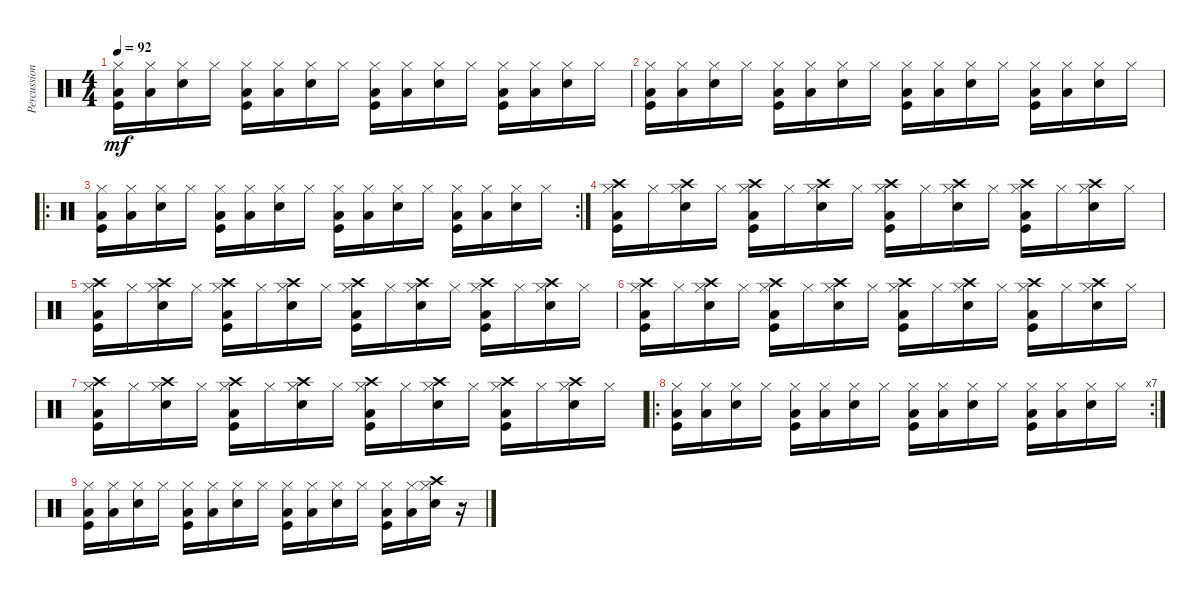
\track ("Percussion" "Percussion") {instrument percussion}
\staff {score}
\articulation defaults
\ts (4 4)
\tempo 92
\clef neutral
\ks c
("Hi-Hat (closed)" "Low Tom (hit)" "Kick (hit)").16{dy mf} ("Hi-Hat (closed)" "Low Tom (hit)").16 ("Hi-Hat (closed)" "Snare (hit) 2").16 "Hi-Hat (closed)".16 ("Hi-Hat (closed)" "Low Tom (hit)" "Kick (hit)").16 ("Hi-Hat (closed)" "Low Tom (hit)").16 ("Hi-Hat (closed)" "Snare (hit) 2").16 "Hi-Hat (closed)".16 ("Hi-Hat (closed)" "Low Tom (hit)" "Kick (hit)").16 ("Hi-Hat (closed)" "Low Tom (hit)").16 ("Hi-Hat (closed)" "Snare (hit) 2").16 "Hi-Hat (closed)".16 ("Hi-Hat (closed)" "Low Tom (hit)" "Kick (hit)").16 ("Hi-Hat (closed)" "Low Tom (hit)").16 ("Hi-Hat (closed)" "Snare (hit) 2").16 "Hi-Hat (closed)".16 |
("Hi-Hat (closed)" "Low Tom (hit)" "Kick (hit)").16 ("Hi-Hat (closed)" "Low Tom (hit)").16 ("Hi-Hat (closed)" "Snare (hit) 2").16 "Hi-Hat (closed)".16 ("Hi-Hat (closed)" "Low Tom (hit)" "Kick (hit)").16 ("Hi-Hat (closed)" "Low Tom (hit)").16 ("Hi-Hat (closed)" "Snare (hit) 2").16 "Hi-Hat (closed)".16 ("Hi-Hat (closed)" "Low Tom (hit)" "Kick (hit)").16 ("Hi-Hat (closed)" "Low Tom (hit)").16 ("Hi-Hat (closed)" "Snare (hit) 2").16 "Hi-Hat (closed)".16 ("Hi-Hat (closed)" "Low Tom (hit)" "Kick (hit)").16 ("Hi-Hat (closed)" "Low Tom (hit)").16 ("Hi-Hat (closed)" "Snare (hit) 2").16 "Hi-Hat (closed)".16 |
\ro
\rc 2
("Hi-Hat (closed)" "Low Tom (hit)" "Kick (hit)").16 ("Hi-Hat (closed)" "Low Tom (hit)").16 ("Hi-Hat (closed)" "Snare (hit) 2").16 "Hi-Hat (closed)".16 ("Hi-Hat (closed)" "Low Tom (hit)" "Kick (hit)").16 ("Hi-Hat (closed)" "Low Tom (hit)").16 ("Hi-Hat (closed)" "Snare (hit) 2").16 "Hi-Hat (closed)".16 ("Hi-Hat (closed)" "Low Tom (hit)" "Kick (hit)").16 ("Hi-Hat (closed)" "Low Tom (hit)").16 ("Hi-Hat (closed)" "Snare (hit) 2").16 "Hi-Hat (closed)".16 ("Hi-Hat (closed)" "Low Tom (hit)" "Kick (hit)").16 ("Hi-Hat (closed)" "Low Tom (hit)").16 ("Hi-Hat (closed)" "Snare (hit) 2").16 "Hi-Hat (closed)".16 |
("Hi-Hat (closed)" "Crash high (hit)" "Low Tom (hit)" "Kick (hit)").16 "Hi-Hat (closed)".16 ("Hi-Hat (closed)" "Crash high (hit)" "Snare (hit) 2").16 "Hi-Hat (closed)".16 ("Hi-Hat (closed)" "Crash high (hit)" "Low Tom (hit)" "Kick (hit)").16 "Hi-Hat (closed)".16 ("Hi-Hat (closed)" "Crash high (hit)" "Snare (hit) 2").16 "Hi-Hat (closed)".16 ("Hi-Hat (closed)" "Crash high (hit)" "Low Tom (hit)" "Kick (hit)").16 "Hi-Hat (closed)".16 ("Hi-Hat (closed)" "Crash high (hit)" "Snare (hit) 2").16 "Hi-Hat (closed)".16 ("Hi-Hat (closed)" "Crash high (hit)" "Low Tom (hit)" "Kick (hit)").16 "Hi-Hat (closed)".16 ("Hi-Hat (closed)" "Crash high (hit)" "Snare (hit) 2").16 "Hi-Hat (closed)".16 |
("Hi-Hat (closed)" "Crash high (hit)" "Low Tom (hit)" "Kick (hit)").16 "Hi-Hat (closed)".16 ("Hi-Hat (closed)" "Crash high (hit)" "Snare (hit) 2").16 "Hi-Hat (closed)".16 ("Hi-Hat (closed)" "Crash high (hit)" "Low Tom (hit)" "Kick (hit)").16 "Hi-Hat (closed)".16 ("Hi-Hat (closed)" "Crash high (hit)" "Snare (hit) 2").16 "Hi-Hat (closed)".16 ("Hi-Hat (closed)" "Crash high (hit)" "Low Tom (hit)" "Kick (hit)").16 "Hi-Hat (closed)".16 ("Hi-Hat (closed)" "Crash high (hit)" "Snare (hit) 2").16 "Hi-Hat (closed)".16 ("Hi-Hat (closed)" "Crash high (hit)" "Low Tom (hit)" "Kick (hit)").16 "Hi-Hat (closed)".16 ("Hi-Hat (closed)" "Crash high (hit)" "Snare (hit) 2").16 "Hi-Hat (closed)".16 |
("Hi-Hat (closed)" "Crash high (hit)" "Low Tom (hit)" "Kick (hit)").16 "Hi-Hat (closed)".16 ("Hi-Hat (closed)" "Crash high (hit)" "Snare (hit) 2").16 "Hi-Hat (closed)".16 ("Hi-Hat (closed)" "Crash high (hit)" "Low Tom (hit)" "Kick (hit)").16 "Hi-Hat (closed)".16 ("Hi-Hat (closed)" "Crash high (hit)" "Snare (hit) 2").16 "Hi-Hat (closed)".16 ("Hi-Hat (closed)" "Crash high (hit)" "Low Tom (hit)" "Kick (hit)").16 "Hi-Hat (closed)".16 ("Hi-Hat (closed)" "Crash high (hit)" "Snare (hit) 2").16 "Hi-Hat (closed)".16 ("Hi-Hat (closed)" "Crash high (hit)" "Low Tom (hit)" "Kick (hit)").16 "Hi-Hat (closed)".16 ("Hi-Hat (closed)" "Crash high (hit)" "Snare (hit) 2").16 "Hi-Hat (closed)".16 |
("Hi-Hat (closed)" "Crash high (hit)" "Low Tom (hit)" "Kick (hit)").16 "Hi-Hat (closed)".16 ("Hi-Hat (closed)" "Crash high (hit)" "Snare (hit) 2").16 "Hi-Hat (closed)".16 ("Hi-Hat (closed)" "Crash high (hit)" "Low Tom (hit)" "Kick (hit)").16 "Hi-Hat (closed)".16 ("Hi-Hat (closed)" "Crash high (hit)" "Snare (hit) 2").16 "Hi-Hat (closed)".16 ("Hi-Hat (closed)" "Crash high (hit)" "Low Tom (hit)" "Kick (hit)").16 "Hi-Hat (closed)".16 ("Hi-Hat (closed)" "Crash high (hit)" "Snare (hit) 2").16 "Hi-Hat (closed)".16 ("Hi-Hat (closed)" "Crash high (hit)" "Low Tom (hit)" "Kick (hit)").16 "Hi-Hat (closed)".16 ("Hi-Hat (closed)" "Crash high (hit)" "Snare (hit) 2").16 "Hi-Hat (closed)".16 |
\ro
\rc 7
("Hi-Hat (closed)" "Low Tom (hit)" "Kick (hit)").16 ("Hi-Hat (closed)" "Low Tom (hit)").16 ("Hi-Hat (closed)" "Snare (hit) 2").16 "Hi-Hat (closed)".16 ("Hi-Hat (closed)" "Low Tom (hit)" "Kick (hit)").16 ("Hi-Hat (closed)" "Low Tom (hit)").16 ("Hi-Hat (closed)" "Snare (hit) 2").16 "Hi-Hat (closed)".16 ("Hi-Hat (closed)" "Low Tom (hit)" "Kick (hit)").16 ("Hi-Hat (closed)" "Low Tom (hit)").16 ("Hi-Hat (closed)" "Snare (hit) 2").16 "Hi-Hat (closed)".16 ("Hi-Hat (closed)" "Low Tom (hit)" "Kick (hit)").16 ("Hi-Hat (closed)" "Low Tom (hit)").16 ("Hi-Hat (closed)" "Snare (hit) 2").16 "Hi-Hat (closed)".16 |
("Hi-Hat (closed)" "Low Tom (hit)" "Kick (hit)").16 ("Hi-Hat (closed)" "Low Tom (hit)").16 ("Hi-Hat (closed)" "Snare (hit) 2").16 "Hi-Hat (closed)".16 ("Hi-Hat (closed)" "Low Tom (hit)" "Kick (hit)").16 ("Hi-Hat (closed)" "Low Tom (hit)").16 ("Hi-Hat (closed)" "Snare (hit) 2").16 "Hi-Hat (closed)".16 ("Hi-Hat (closed)" "Low Tom (hit)" "Kick (hit)").16 ("Hi-Hat (closed)" "Low Tom (hit)").16 ("Hi-Hat (closed)" "Snare (hit) 2").16 "Hi-Hat (closed)".16 ("Hi-Hat (closed)" "Low Tom (hit)" "Kick (hit)").16 ("Hi-Hat (closed)" "Low Tom (hit)").16 ("Hi-Hat (closed)" "Crash high (hit)" "Snare (hit) 2").16 r.16
